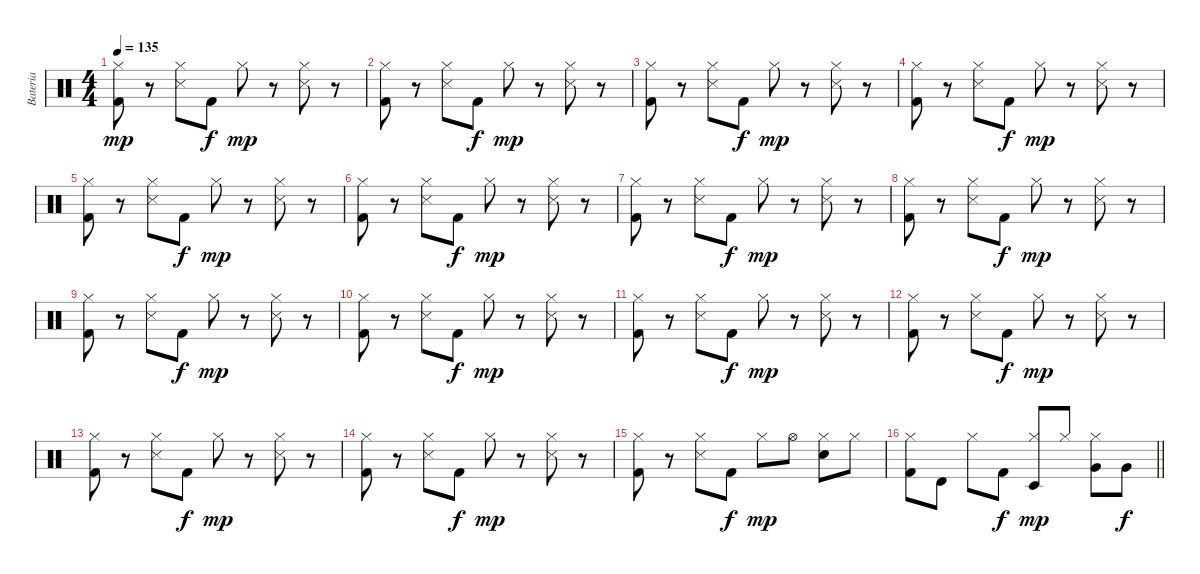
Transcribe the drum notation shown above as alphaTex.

\track ("Bateria" "Bateria") {instrument percussion}
\staff {score}
\articulation defaults
\ts (4 4)
\tempo 135
\clef neutral
\ks c
("Hi-Hat (closed)" "Kick (hit) 2").8{dy mp} r.8 ("Hi-Hat (closed)" "Snare (side stick) 3").8 "Kick (hit) 2".8{dy f} "Hi-Hat (closed)".8{dy mp} r.8 ("Hi-Hat (closed)" "Snare (side stick) 3").8 r.8 |
("Hi-Hat (closed)" "Kick (hit) 2").8 r.8 ("Hi-Hat (closed)" "Snare (side stick) 3").8 "Kick (hit) 2".8{dy f} "Hi-Hat (closed)".8{dy mp} r.8 ("Hi-Hat (closed)" "Snare (side stick) 3").8 r.8 |
("Hi-Hat (closed)" "Kick (hit) 2").8 r.8 ("Hi-Hat (closed)" "Snare (side stick) 3").8 "Kick (hit) 2".8{dy f} "Hi-Hat (closed)".8{dy mp} r.8 ("Hi-Hat (closed)" "Snare (side stick) 3").8 r.8 |
("Hi-Hat (closed)" "Kick (hit) 2").8 r.8 ("Hi-Hat (closed)" "Snare (side stick) 3").8 "Kick (hit) 2".8{dy f} "Hi-Hat (closed)".8{dy mp} r.8 ("Hi-Hat (closed)" "Snare (side stick) 3").8 r.8 |
("Hi-Hat (closed)" "Kick (hit) 2").8 r.8 ("Hi-Hat (closed)" "Snare (side stick) 3").8 "Kick (hit) 2".8{dy f} "Hi-Hat (closed)".8{dy mp} r.8 ("Hi-Hat (closed)" "Snare (side stick) 3").8 r.8 |
("Hi-Hat (closed)" "Kick (hit) 2").8 r.8 ("Hi-Hat (closed)" "Snare (side stick) 3").8 "Kick (hit) 2".8{dy f} "Hi-Hat (closed)".8{dy mp} r.8 ("Hi-Hat (closed)" "Snare (side stick) 3").8 r.8 |
("Hi-Hat (closed)" "Kick (hit) 2").8 r.8 ("Hi-Hat (closed)" "Snare (side stick) 3").8 "Kick (hit) 2".8{dy f} "Hi-Hat (closed)".8{dy mp} r.8 ("Hi-Hat (closed)" "Snare (side stick) 3").8 r.8 |
("Hi-Hat (closed)" "Kick (hit) 2").8 r.8 ("Hi-Hat (closed)" "Snare (side stick) 3").8 "Kick (hit) 2".8{dy f} "Hi-Hat (closed)".8{dy mp} r.8 ("Hi-Hat (closed)" "Snare (side stick) 3").8 r.8 |
("Hi-Hat (closed)" "Kick (hit) 2").8 r.8 ("Hi-Hat (closed)" "Snare (side stick) 3").8 "Kick (hit) 2".8{dy f} "Hi-Hat (closed)".8{dy mp} r.8 ("Hi-Hat (closed)" "Snare (side stick) 3").8 r.8 |
("Hi-Hat (closed)" "Kick (hit) 2").8 r.8 ("Hi-Hat (closed)" "Snare (side stick) 3").8 "Kick (hit) 2".8{dy f} "Hi-Hat (closed)".8{dy mp} r.8 ("Hi-Hat (closed)" "Snare (side stick) 3").8 r.8 |
("Hi-Hat (closed)" "Kick (hit) 2").8 r.8 ("Hi-Hat (closed)" "Snare (side stick) 3").8 "Kick (hit) 2".8{dy f} "Hi-Hat (closed)".8{dy mp} r.8 ("Hi-Hat (closed)" "Snare (side stick) 3").8 r.8 |
("Hi-Hat (closed)" "Kick (hit) 2").8 r.8 ("Hi-Hat (closed)" "Snare (side stick) 3").8 "Kick (hit) 2".8{dy f} "Hi-Hat (closed)".8{dy mp} r.8 ("Hi-Hat (closed)" "Snare (side stick) 3").8 r.8 |
("Hi-Hat (closed)" "Kick (hit) 2").8 r.8 ("Hi-Hat (closed)" "Snare (side stick) 3").8 "Kick (hit) 2".8{dy f} "Hi-Hat (closed)".8{dy mp} r.8 ("Hi-Hat (closed)" "Snare (side stick) 3").8 r.8 |
("Hi-Hat (closed)" "Kick (hit) 2").8 r.8 ("Hi-Hat (closed)" "Snare (side stick) 3").8 "Kick (hit) 2".8{dy f} "Hi-Hat (closed)".8{dy mp} r.8 ("Hi-Hat (closed)" "Snare (side stick) 3").8 r.8 |
("Hi-Hat (closed)" "Kick (hit) 2").8 r.8 ("Hi-Hat (closed)" "Snare (side stick) 3").8 "Kick (hit) 2".8{dy f} "Hi-Hat (closed)".8{dy mp} "Hi-Hat (open)".8 ("Hi-Hat (closed)" "Snare (hit) 2").8 "Hi-Hat (closed)".8 |
\barLineRight lightlight
("Hi-Hat (closed)" "Kick (hit) 2").8 "Timbale high (hit)".8 "Hi-Hat (closed)".8 "Kick (hit) 2".8{dy f} ("Hi-Hat (closed)" "Timbale low (hit)").8{dy mp} "Hi-Hat (closed)".8 ("Hi-Hat (closed)" "Very Low Tom (hit)").8 "Very Low Tom (hit)".8{dy f}
